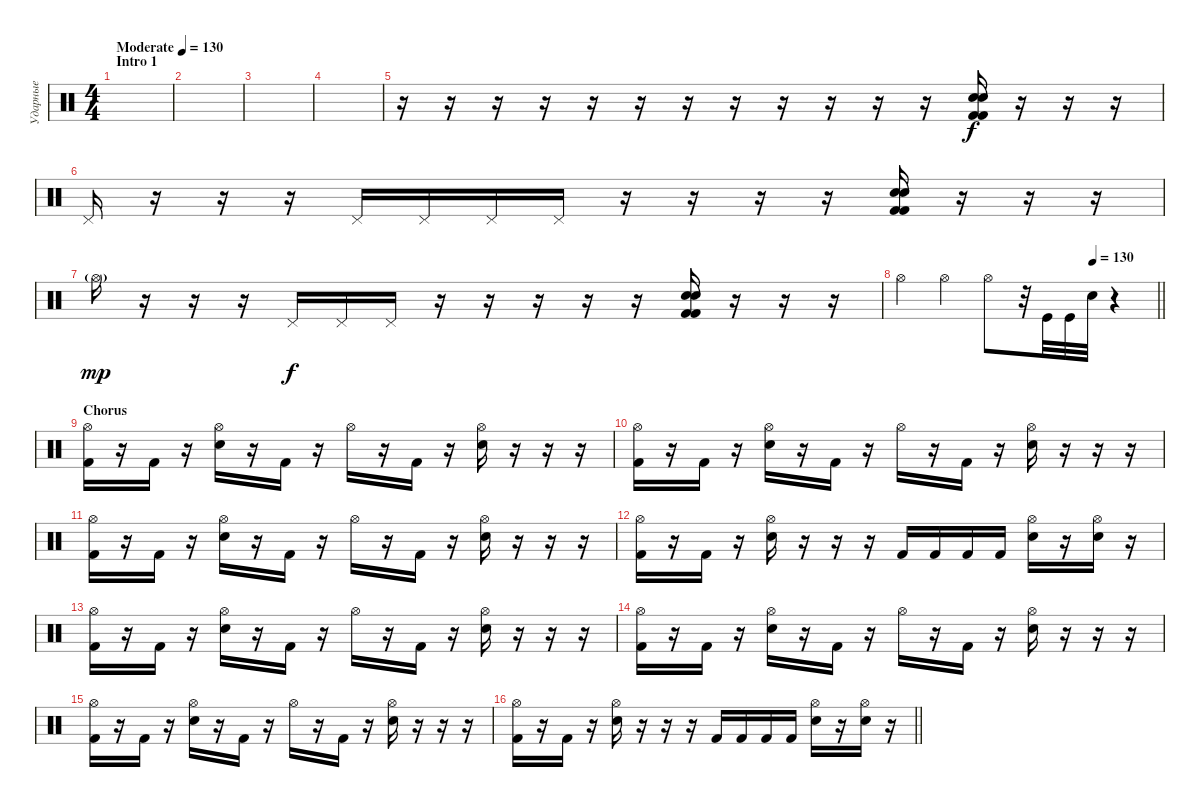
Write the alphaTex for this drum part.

\track ("Ударные" "Ударные") {instrument percussion}
\staff {score}
\articulation defaults
\ts (4 4)
\section ("" "Intro 1")
\tempo (130 "Moderate")
\tempo 100
\tempo (130 "Moderate")
\clef neutral
\ks c
|
|
|
|
r.16 r.16 r.16 r.16 r.16 r.16 r.16 r.16 r.16 r.16 r.16 r.16 ("Kick (hit) 2" "Electric Snare (hit)" "Electric Snare (hit)" "Kick (hit) 2").16{volume 16} r.16{volume 12} r.16 r.16 |
"Pedal Hi-Hat (hit)".16 r.16 r.16 r.16 "Pedal Hi-Hat (hit)".16 "Pedal Hi-Hat (hit)".16 "Pedal Hi-Hat (hit)".16 "Pedal Hi-Hat (hit)".16 r.16 r.16 r.16 r.16 ("Kick (hit) 2" "Electric Snare (hit)" "Electric Snare (hit)" "Kick (hit) 2").16{volume 16} r.16{volume 12} r.16 r.16 |
"Hi-Hat (open)"{g}.16{dy mp} r.16 r.16 r.16 "Pedal Hi-Hat (hit)".16{dy f} "Pedal Hi-Hat (hit)".16 "Pedal Hi-Hat (hit)".16 r.16 r.16 r.16 r.16 r.16 ("Kick (hit) 2" "Electric Snare (hit)" "Electric Snare (hit)" "Kick (hit) 2").16{volume 16} r.16{volume 12} r.16 r.16 |
\tempo (130 0.75)
\barLineRight lightlight "Hi-Hat (open)".4 "Hi-Hat (open)".4 "Hi-Hat (open)".8
r.32 "Kick (hit)".32 "Kick (hit)".32 "Electric Snare (hit)".32 r.4 |
\section ("" "Chorus")
("Kick (hit) 2" "Hi-Hat (open)").16 r.16 "Kick (hit) 2".16 r.16 ("Electric Snare (hit)" "Hi-Hat (open)").16 r.16 "Kick (hit) 2".16 r.16 "Hi-Hat (open)".16 r.16 "Kick (hit) 2".16 r.16 ("Electric Snare (hit)" "Hi-Hat (open)").16 r.16 r.16 r.16 |
("Kick (hit) 2" "Hi-Hat (open)").16 r.16 "Kick (hit) 2".16 r.16 ("Electric Snare (hit)" "Hi-Hat (open)").16 r.16 "Kick (hit) 2".16 r.16 "Hi-Hat (open)".16 r.16 "Kick (hit) 2".16 r.16 ("Electric Snare (hit)" "Hi-Hat (open)").16 r.16 r.16 r.16 |
("Kick (hit) 2" "Hi-Hat (open)").16 r.16 "Kick (hit) 2".16 r.16 ("Electric Snare (hit)" "Hi-Hat (open)").16 r.16 "Kick (hit) 2".16 r.16 "Hi-Hat (open)".16 r.16 "Kick (hit) 2".16 r.16 ("Electric Snare (hit)" "Hi-Hat (open)").16 r.16 r.16 r.16 |
("Kick (hit) 2" "Hi-Hat (open)").16 r.16 "Kick (hit) 2".16 r.16 ("Electric Snare (hit)" "Hi-Hat (open)").16 r.16 r.16 r.16 "Kick (hit) 2".16 "Kick (hit) 2".16 "Kick (hit) 2".16 "Kick (hit) 2".16 ("Electric Snare (hit)" "Hi-Hat (open)").16 r.16 ("Electric Snare (hit)" "Hi-Hat (open)").16 r.16 |
("Kick (hit) 2" "Hi-Hat (open)").16 r.16 "Kick (hit) 2".16 r.16 ("Electric Snare (hit)" "Hi-Hat (open)").16 r.16 "Kick (hit) 2".16 r.16 "Hi-Hat (open)".16 r.16 "Kick (hit) 2".16 r.16 ("Electric Snare (hit)" "Hi-Hat (open)").16 r.16 r.16 r.16 |
("Kick (hit) 2" "Hi-Hat (open)").16 r.16 "Kick (hit) 2".16 r.16 ("Electric Snare (hit)" "Hi-Hat (open)").16 r.16 "Kick (hit) 2".16 r.16 "Hi-Hat (open)".16 r.16 "Kick (hit) 2".16 r.16 ("Electric Snare (hit)" "Hi-Hat (open)").16 r.16 r.16 r.16 |
("Kick (hit) 2" "Hi-Hat (open)").16 r.16 "Kick (hit) 2".16 r.16 ("Electric Snare (hit)" "Hi-Hat (open)").16 r.16 "Kick (hit) 2".16 r.16 "Hi-Hat (open)".16 r.16 "Kick (hit) 2".16 r.16 ("Electric Snare (hit)" "Hi-Hat (open)").16 r.16 r.16 r.16 |
\barLineRight lightlight
("Kick (hit) 2" "Hi-Hat (open)").16 r.16 "Kick (hit) 2".16 r.16 ("Electric Snare (hit)" "Hi-Hat (open)").16 r.16 r.16 r.16 "Kick (hit) 2".16 "Kick (hit) 2".16 "Kick (hit) 2".16 "Kick (hit) 2".16 ("Electric Snare (hit)" "Hi-Hat (open)").16 r.16 ("Electric Snare (hit)" "Hi-Hat (open)").16 r.16
